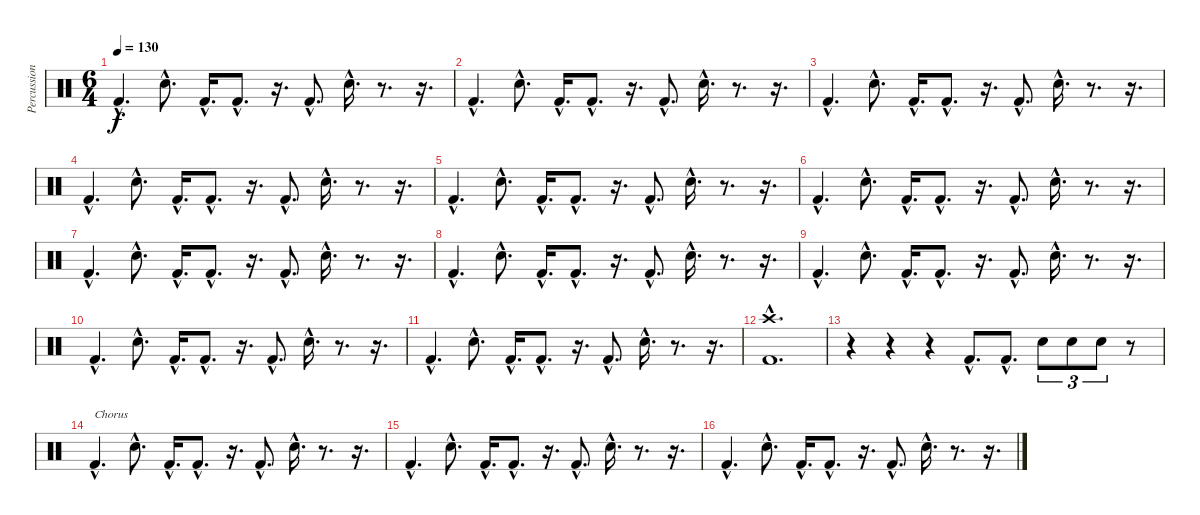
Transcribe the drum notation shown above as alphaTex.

\track ("Percussion" "Percussion") {instrument percussion}
\staff {score}
\articulation defaults
\ts (6 4)
\tempo 130
\clef neutral
\ks c "Kick (hit) 2"{hac}.4{d dy f} "Snare (hit) 2"{hac}.8{d} "Kick (hit) 2"{hac}.16{d} "Kick (hit) 2"{hac}.8{d}
r.16{d} "Kick (hit) 2"{hac}.8{d} "Snare (hit) 2"{hac}.16{d} r.8{d} r.16{d} |
"Kick (hit) 2"{hac}.4{d} "Snare (hit) 2"{hac}.8{d} "Kick (hit) 2"{hac}.16{d} "Kick (hit) 2"{hac}.8{d} r.16{d} "Kick (hit) 2"{hac}.8{d} "Snare (hit) 2"{hac}.16{d} r.8{d} r.16{d} |
"Kick (hit) 2"{hac}.4{d} "Snare (hit) 2"{hac}.8{d} "Kick (hit) 2"{hac}.16{d} "Kick (hit) 2"{hac}.8{d} r.16{d} "Kick (hit) 2"{hac}.8{d} "Snare (hit) 2"{hac}.16{d} r.8{d} r.16{d} |
"Kick (hit) 2"{hac}.4{d} "Snare (hit) 2"{hac}.8{d} "Kick (hit) 2"{hac}.16{d} "Kick (hit) 2"{hac}.8{d} r.16{d} "Kick (hit) 2"{hac}.8{d} "Snare (hit) 2"{hac}.16{d} r.8{d} r.16{d} |
"Kick (hit) 2"{hac}.4{d} "Snare (hit) 2"{hac}.8{d} "Kick (hit) 2"{hac}.16{d} "Kick (hit) 2"{hac}.8{d} r.16{d} "Kick (hit) 2"{hac}.8{d} "Snare (hit) 2"{hac}.16{d} r.8{d} r.16{d} |
"Kick (hit) 2"{hac}.4{d} "Snare (hit) 2"{hac}.8{d} "Kick (hit) 2"{hac}.16{d} "Kick (hit) 2"{hac}.8{d} r.16{d} "Kick (hit) 2"{hac}.8{d} "Snare (hit) 2"{hac}.16{d} r.8{d} r.16{d} |
"Kick (hit) 2"{hac}.4{d} "Snare (hit) 2"{hac}.8{d} "Kick (hit) 2"{hac}.16{d} "Kick (hit) 2"{hac}.8{d} r.16{d} "Kick (hit) 2"{hac}.8{d} "Snare (hit) 2"{hac}.16{d} r.8{d} r.16{d} |
"Kick (hit) 2"{hac}.4{d} "Snare (hit) 2"{hac}.8{d} "Kick (hit) 2"{hac}.16{d} "Kick (hit) 2"{hac}.8{d} r.16{d} "Kick (hit) 2"{hac}.8{d} "Snare (hit) 2"{hac}.16{d} r.8{d} r.16{d} |
"Kick (hit) 2"{hac}.4{d} "Snare (hit) 2"{hac}.8{d} "Kick (hit) 2"{hac}.16{d} "Kick (hit) 2"{hac}.8{d} r.16{d} "Kick (hit) 2"{hac}.8{d} "Snare (hit) 2"{hac}.16{d} r.8{d} r.16{d} |
"Kick (hit) 2"{hac}.4{d} "Snare (hit) 2"{hac}.8{d} "Kick (hit) 2"{hac}.16{d} "Kick (hit) 2"{hac}.8{d} r.16{d} "Kick (hit) 2"{hac}.8{d} "Snare (hit) 2"{hac}.16{d} r.8{d} r.16{d} |
"Kick (hit) 2"{hac}.4{d} "Snare (hit) 2"{hac}.8{d} "Kick (hit) 2"{hac}.16{d} "Kick (hit) 2"{hac}.8{d} r.16{d} "Kick (hit) 2"{hac}.8{d} "Snare (hit) 2"{hac}.16{d} r.8{d} r.16{d} |
("Kick (hit) 2"{hac} "Crash high (hit)"{hac}).1{d} |
r.4 r.4 r.4 "Kick (hit) 2"{hac}.8{d} "Kick (hit) 2"{hac}.8{d} "Snare (hit) 2".8{tu (3 2)} "Snare (hit) 2".8{tu (3 2)} "Snare (hit) 2".8{tu (3 2)} r.8 |
"Kick (hit) 2"{hac}.4{d txt "Chorus"} "Snare (hit) 2"{hac}.8{d} "Kick (hit) 2"{hac}.16{d} "Kick (hit) 2"{hac}.8{d} r.16{d} "Kick (hit) 2"{hac}.8{d} "Snare (hit) 2"{hac}.16{d} r.8{d} r.16{d} |
"Kick (hit) 2"{hac}.4{d} "Snare (hit) 2"{hac}.8{d} "Kick (hit) 2"{hac}.16{d} "Kick (hit) 2"{hac}.8{d} r.16{d} "Kick (hit) 2"{hac}.8{d} "Snare (hit) 2"{hac}.16{d} r.8{d} r.16{d} |
"Kick (hit) 2"{hac}.4{d} "Snare (hit) 2"{hac}.8{d} "Kick (hit) 2"{hac}.16{d} "Kick (hit) 2"{hac}.8{d} r.16{d} "Kick (hit) 2"{hac}.8{d} "Snare (hit) 2"{hac}.16{d} r.8{d} r.16{d}
